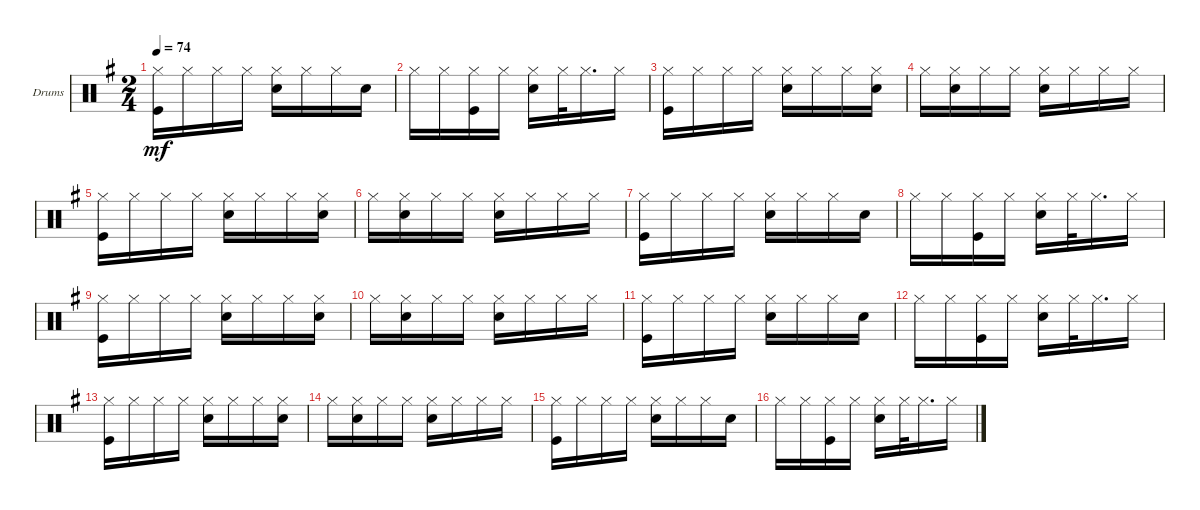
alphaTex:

\defaultSystemsLayout 4
\bracketExtendMode groupsimilarinstruments
\firstSystemTrackNameOrientation horizontal
\otherSystemsTrackNameOrientation horizontal
\track ("Drumkit" "Drums") {instrument percussion}
\staff {score}
\articulation defaults
\ts (2 4)
\tempo 74
\clef neutral
\ks eminor
("Hi-Hat (closed)" "Kick (hit)").16{dy mf} "Hi-Hat (closed)".16 "Hi-Hat (closed)".16 "Hi-Hat (closed)".16 ("Hi-Hat (closed)" "Snare (hit) 2").16 "Hi-Hat (closed)".16 "Hi-Hat (closed)".16 "Snare (hit) 2".16 |
"Hi-Hat (closed)".16 "Hi-Hat (closed)".16 ("Hi-Hat (closed)" "Kick (hit)").16 "Hi-Hat (closed)".16 ("Hi-Hat (closed)" "Snare (hit) 2").16 "Hi-Hat (closed)".32 "Hi-Hat (closed)".16{d} "Hi-Hat (closed)".16 |
("Hi-Hat (closed)" "Kick (hit)").16 "Hi-Hat (closed)".16 "Hi-Hat (closed)".16 "Hi-Hat (closed)".16 ("Hi-Hat (closed)" "Snare (hit) 2").16 "Hi-Hat (closed)".16 "Hi-Hat (closed)".16 ("Hi-Hat (closed)" "Snare (hit) 2").16 |
"Hi-Hat (closed)".16 ("Hi-Hat (closed)" "Snare (hit) 2").16 "Hi-Hat (closed)".16 "Hi-Hat (closed)".16 ("Hi-Hat (closed)" "Snare (hit) 2").16 "Hi-Hat (closed)".16 "Hi-Hat (closed)".16 "Hi-Hat (closed)".16 |
("Hi-Hat (closed)" "Kick (hit)").16 "Hi-Hat (closed)".16 "Hi-Hat (closed)".16 "Hi-Hat (closed)".16 ("Hi-Hat (closed)" "Snare (hit) 2").16 "Hi-Hat (closed)".16 "Hi-Hat (closed)".16 ("Hi-Hat (closed)" "Snare (hit) 2").16 |
"Hi-Hat (closed)".16 ("Hi-Hat (closed)" "Snare (hit) 2").16 "Hi-Hat (closed)".16 "Hi-Hat (closed)".16 ("Hi-Hat (closed)" "Snare (hit) 2").16 "Hi-Hat (closed)".16 "Hi-Hat (closed)".16 "Hi-Hat (closed)".16 |
("Hi-Hat (closed)" "Kick (hit)").16 "Hi-Hat (closed)".16 "Hi-Hat (closed)".16 "Hi-Hat (closed)".16 ("Hi-Hat (closed)" "Snare (hit) 2").16 "Hi-Hat (closed)".16 "Hi-Hat (closed)".16 "Snare (hit) 2".16 |
"Hi-Hat (closed)".16 "Hi-Hat (closed)".16 ("Hi-Hat (closed)" "Kick (hit)").16 "Hi-Hat (closed)".16 ("Hi-Hat (closed)" "Snare (hit) 2").16 "Hi-Hat (closed)".32 "Hi-Hat (closed)".16{d} "Hi-Hat (closed)".16 |
("Hi-Hat (closed)" "Kick (hit)").16 "Hi-Hat (closed)".16 "Hi-Hat (closed)".16 "Hi-Hat (closed)".16 ("Hi-Hat (closed)" "Snare (hit) 2").16 "Hi-Hat (closed)".16 "Hi-Hat (closed)".16 ("Hi-Hat (closed)" "Snare (hit) 2").16 |
"Hi-Hat (closed)".16 ("Hi-Hat (closed)" "Snare (hit) 2").16 "Hi-Hat (closed)".16 "Hi-Hat (closed)".16 ("Hi-Hat (closed)" "Snare (hit) 2").16 "Hi-Hat (closed)".16 "Hi-Hat (closed)".16 "Hi-Hat (closed)".16 |
("Hi-Hat (closed)" "Kick (hit)").16 "Hi-Hat (closed)".16 "Hi-Hat (closed)".16 "Hi-Hat (closed)".16 ("Hi-Hat (closed)" "Snare (hit) 2").16 "Hi-Hat (closed)".16 "Hi-Hat (closed)".16 "Snare (hit) 2".16 |
"Hi-Hat (closed)".16 "Hi-Hat (closed)".16 ("Hi-Hat (closed)" "Kick (hit)").16 "Hi-Hat (closed)".16 ("Hi-Hat (closed)" "Snare (hit) 2").16 "Hi-Hat (closed)".32 "Hi-Hat (closed)".16{d} "Hi-Hat (closed)".16 |
("Hi-Hat (closed)" "Kick (hit)").16 "Hi-Hat (closed)".16 "Hi-Hat (closed)".16 "Hi-Hat (closed)".16 ("Hi-Hat (closed)" "Snare (hit) 2").16 "Hi-Hat (closed)".16 "Hi-Hat (closed)".16 ("Hi-Hat (closed)" "Snare (hit) 2").16 |
"Hi-Hat (closed)".16 ("Hi-Hat (closed)" "Snare (hit) 2").16 "Hi-Hat (closed)".16 "Hi-Hat (closed)".16 ("Hi-Hat (closed)" "Snare (hit) 2").16 "Hi-Hat (closed)".16 "Hi-Hat (closed)".16 "Hi-Hat (closed)".16 |
("Hi-Hat (closed)" "Kick (hit)").16 "Hi-Hat (closed)".16 "Hi-Hat (closed)".16 "Hi-Hat (closed)".16 ("Hi-Hat (closed)" "Snare (hit) 2").16 "Hi-Hat (closed)".16 "Hi-Hat (closed)".16 "Snare (hit) 2".16 |
"Hi-Hat (closed)".16 "Hi-Hat (closed)".16 ("Hi-Hat (closed)" "Kick (hit)").16 "Hi-Hat (closed)".16 ("Hi-Hat (closed)" "Snare (hit) 2").16 "Hi-Hat (closed)".32 "Hi-Hat (closed)".16{d} "Hi-Hat (closed)".16
